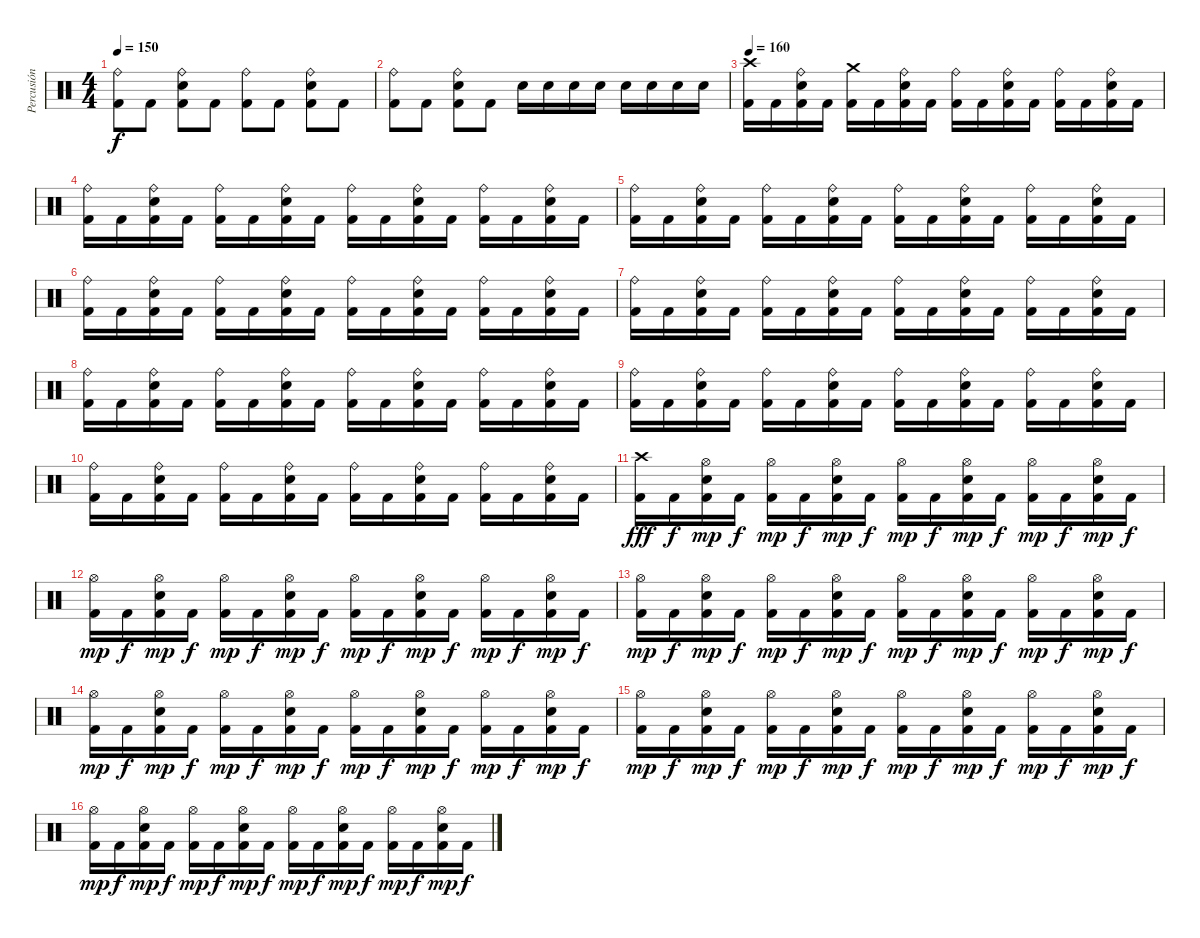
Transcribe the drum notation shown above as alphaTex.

\track ("Percusión" "Percusión") {instrument percussion}
\staff {score}
\articulation defaults
\ts (4 4)
\tempo 150
\clef neutral
\ks c
("Ride (bell)" "Kick (hit) 2").8{dy f} "Kick (hit) 2".8 ("Ride (bell)" "Snare (hit) 2" "Kick (hit) 2").8 "Kick (hit) 2".8 ("Ride (bell)" "Kick (hit) 2").8 "Kick (hit) 2".8 ("Ride (bell)" "Snare (hit) 2" "Kick (hit) 2").8 "Kick (hit) 2".8 |
("Ride (bell)" "Kick (hit) 2").8 "Kick (hit) 2".8 ("Ride (bell)" "Snare (hit) 2" "Kick (hit) 2").8 "Kick (hit) 2".8 "Snare (hit) 2".16 "Snare (hit) 2".16 "Snare (hit) 2".16 "Snare (hit) 2".16 "Snare (hit) 2".16 "Snare (hit) 2".16 "Snare (hit) 2".16 "Snare (hit) 2".16 |
\tempo 160
("Crash high (hit)" "Kick (hit) 2").16 "Kick (hit) 2".16 ("Ride (bell)" "Snare (hit) 2" "Kick (hit) 2").16 "Kick (hit) 2".16 ("Crash medium (hit)" "Kick (hit) 2").16 "Kick (hit) 2".16 ("Ride (bell)" "Snare (hit) 2" "Kick (hit) 2").16 "Kick (hit) 2".16 ("Ride (bell)" "Kick (hit) 2").16 "Kick (hit) 2".16 ("Ride (bell)" "Snare (hit) 2" "Kick (hit) 2").16 "Kick (hit) 2".16 ("Ride (bell)" "Kick (hit) 2").16 "Kick (hit) 2".16 ("Ride (bell)" "Snare (hit) 2" "Kick (hit) 2").16 "Kick (hit) 2".16 |
("Ride (bell)" "Kick (hit) 2").16 "Kick (hit) 2".16 ("Ride (bell)" "Snare (hit) 2" "Kick (hit) 2").16 "Kick (hit) 2".16 ("Ride (bell)" "Kick (hit) 2").16 "Kick (hit) 2".16 ("Ride (bell)" "Snare (hit) 2" "Kick (hit) 2").16 "Kick (hit) 2".16 ("Ride (bell)" "Kick (hit) 2").16 "Kick (hit) 2".16 ("Ride (bell)" "Snare (hit) 2" "Kick (hit) 2").16 "Kick (hit) 2".16 ("Ride (bell)" "Kick (hit) 2").16 "Kick (hit) 2".16 ("Ride (bell)" "Snare (hit) 2" "Kick (hit) 2").16 "Kick (hit) 2".16 |
("Ride (bell)" "Kick (hit) 2").16 "Kick (hit) 2".16 ("Ride (bell)" "Snare (hit) 2" "Kick (hit) 2").16 "Kick (hit) 2".16 ("Ride (bell)" "Kick (hit) 2").16 "Kick (hit) 2".16 ("Ride (bell)" "Snare (hit) 2" "Kick (hit) 2").16 "Kick (hit) 2".16 ("Ride (bell)" "Kick (hit) 2").16 "Kick (hit) 2".16 ("Ride (bell)" "Snare (hit) 2" "Kick (hit) 2").16 "Kick (hit) 2".16 ("Ride (bell)" "Kick (hit) 2").16 "Kick (hit) 2".16 ("Ride (bell)" "Snare (hit) 2" "Kick (hit) 2").16 "Kick (hit) 2".16 |
("Ride (bell)" "Kick (hit) 2").16 "Kick (hit) 2".16 ("Ride (bell)" "Snare (hit) 2" "Kick (hit) 2").16 "Kick (hit) 2".16 ("Ride (bell)" "Kick (hit) 2").16 "Kick (hit) 2".16 ("Ride (bell)" "Snare (hit) 2" "Kick (hit) 2").16 "Kick (hit) 2".16 ("Ride (bell)" "Kick (hit) 2").16 "Kick (hit) 2".16 ("Ride (bell)" "Snare (hit) 2" "Kick (hit) 2").16 "Kick (hit) 2".16 ("Ride (bell)" "Kick (hit) 2").16 "Kick (hit) 2".16 ("Ride (bell)" "Snare (hit) 2" "Kick (hit) 2").16 "Kick (hit) 2".16 |
("Ride (bell)" "Kick (hit) 2").16 "Kick (hit) 2".16 ("Ride (bell)" "Snare (hit) 2" "Kick (hit) 2").16 "Kick (hit) 2".16 ("Ride (bell)" "Kick (hit) 2").16 "Kick (hit) 2".16 ("Ride (bell)" "Snare (hit) 2" "Kick (hit) 2").16 "Kick (hit) 2".16 ("Ride (bell)" "Kick (hit) 2").16 "Kick (hit) 2".16 ("Ride (bell)" "Snare (hit) 2" "Kick (hit) 2").16 "Kick (hit) 2".16 ("Ride (bell)" "Kick (hit) 2").16 "Kick (hit) 2".16 ("Ride (bell)" "Snare (hit) 2" "Kick (hit) 2").16 "Kick (hit) 2".16 |
("Ride (bell)" "Kick (hit) 2").16 "Kick (hit) 2".16 ("Ride (bell)" "Snare (hit) 2" "Kick (hit) 2").16 "Kick (hit) 2".16 ("Ride (bell)" "Kick (hit) 2").16 "Kick (hit) 2".16 ("Ride (bell)" "Snare (hit) 2" "Kick (hit) 2").16 "Kick (hit) 2".16 ("Ride (bell)" "Kick (hit) 2").16 "Kick (hit) 2".16 ("Ride (bell)" "Snare (hit) 2" "Kick (hit) 2").16 "Kick (hit) 2".16 ("Ride (bell)" "Kick (hit) 2").16 "Kick (hit) 2".16 ("Ride (bell)" "Snare (hit) 2" "Kick (hit) 2").16 "Kick (hit) 2".16 |
("Ride (bell)" "Kick (hit) 2").16 "Kick (hit) 2".16 ("Ride (bell)" "Snare (hit) 2" "Kick (hit) 2").16 "Kick (hit) 2".16 ("Ride (bell)" "Kick (hit) 2").16 "Kick (hit) 2".16 ("Ride (bell)" "Snare (hit) 2" "Kick (hit) 2").16 "Kick (hit) 2".16 ("Ride (bell)" "Kick (hit) 2").16 "Kick (hit) 2".16 ("Ride (bell)" "Snare (hit) 2" "Kick (hit) 2").16 "Kick (hit) 2".16 ("Ride (bell)" "Kick (hit) 2").16 "Kick (hit) 2".16 ("Ride (bell)" "Snare (hit) 2" "Kick (hit) 2").16 "Kick (hit) 2".16 |
("Ride (bell)" "Kick (hit) 2").16 "Kick (hit) 2".16 ("Ride (bell)" "Snare (hit) 2" "Kick (hit) 2").16 "Kick (hit) 2".16 ("Ride (bell)" "Kick (hit) 2").16 "Kick (hit) 2".16 ("Ride (bell)" "Snare (hit) 2" "Kick (hit) 2").16 "Kick (hit) 2".16 ("Ride (bell)" "Kick (hit) 2").16 "Kick (hit) 2".16 ("Ride (bell)" "Snare (hit) 2" "Kick (hit) 2").16 "Kick (hit) 2".16 ("Ride (bell)" "Kick (hit) 2").16 "Kick (hit) 2".16 ("Ride (bell)" "Snare (hit) 2" "Kick (hit) 2").16 "Kick (hit) 2".16 |
("Crash high (hit)" "Kick (hit) 2").16{dy fff} "Kick (hit) 2".16{dy f} ("Hi-Hat (open)" "Snare (hit) 2" "Kick (hit) 2").16{dy mp} "Kick (hit) 2".16{dy f} ("Hi-Hat (open)" "Kick (hit) 2").16{dy mp} "Kick (hit) 2".16{dy f} ("Hi-Hat (open)" "Snare (hit) 2" "Kick (hit) 2").16{dy mp} "Kick (hit) 2".16{dy f} ("Hi-Hat (open)" "Kick (hit) 2").16{dy mp} "Kick (hit) 2".16{dy f} ("Hi-Hat (open)" "Snare (hit) 2" "Kick (hit) 2").16{dy mp} "Kick (hit) 2".16{dy f} ("Hi-Hat (open)" "Kick (hit) 2").16{dy mp} "Kick (hit) 2".16{dy f} ("Hi-Hat (open)" "Snare (hit) 2" "Kick (hit) 2").16{dy mp} "Kick (hit) 2".16{dy f} |
("Hi-Hat (open)" "Kick (hit) 2").16{dy mp} "Kick (hit) 2".16{dy f} ("Hi-Hat (open)" "Snare (hit) 2" "Kick (hit) 2").16{dy mp} "Kick (hit) 2".16{dy f} ("Hi-Hat (open)" "Kick (hit) 2").16{dy mp} "Kick (hit) 2".16{dy f} ("Hi-Hat (open)" "Snare (hit) 2" "Kick (hit) 2").16{dy mp} "Kick (hit) 2".16{dy f} ("Hi-Hat (open)" "Kick (hit) 2").16{dy mp} "Kick (hit) 2".16{dy f} ("Hi-Hat (open)" "Snare (hit) 2" "Kick (hit) 2").16{dy mp} "Kick (hit) 2".16{dy f} ("Hi-Hat (open)" "Kick (hit) 2").16{dy mp} "Kick (hit) 2".16{dy f} ("Hi-Hat (open)" "Snare (hit) 2" "Kick (hit) 2").16{dy mp} "Kick (hit) 2".16{dy f} |
("Hi-Hat (open)" "Kick (hit) 2").16{dy mp} "Kick (hit) 2".16{dy f} ("Hi-Hat (open)" "Snare (hit) 2" "Kick (hit) 2").16{dy mp} "Kick (hit) 2".16{dy f} ("Hi-Hat (open)" "Kick (hit) 2").16{dy mp} "Kick (hit) 2".16{dy f} ("Hi-Hat (open)" "Snare (hit) 2" "Kick (hit) 2").16{dy mp} "Kick (hit) 2".16{dy f} ("Hi-Hat (open)" "Kick (hit) 2").16{dy mp} "Kick (hit) 2".16{dy f} ("Hi-Hat (open)" "Snare (hit) 2" "Kick (hit) 2").16{dy mp} "Kick (hit) 2".16{dy f} ("Hi-Hat (open)" "Kick (hit) 2").16{dy mp} "Kick (hit) 2".16{dy f} ("Hi-Hat (open)" "Snare (hit) 2" "Kick (hit) 2").16{dy mp} "Kick (hit) 2".16{dy f} |
("Hi-Hat (open)" "Kick (hit) 2").16{dy mp} "Kick (hit) 2".16{dy f} ("Hi-Hat (open)" "Snare (hit) 2" "Kick (hit) 2").16{dy mp} "Kick (hit) 2".16{dy f} ("Hi-Hat (open)" "Kick (hit) 2").16{dy mp} "Kick (hit) 2".16{dy f} ("Hi-Hat (open)" "Snare (hit) 2" "Kick (hit) 2").16{dy mp} "Kick (hit) 2".16{dy f} ("Hi-Hat (open)" "Kick (hit) 2").16{dy mp} "Kick (hit) 2".16{dy f} ("Hi-Hat (open)" "Snare (hit) 2" "Kick (hit) 2").16{dy mp} "Kick (hit) 2".16{dy f} ("Hi-Hat (open)" "Kick (hit) 2").16{dy mp} "Kick (hit) 2".16{dy f} ("Hi-Hat (open)" "Snare (hit) 2" "Kick (hit) 2").16{dy mp} "Kick (hit) 2".16{dy f} |
("Hi-Hat (open)" "Kick (hit) 2").16{dy mp} "Kick (hit) 2".16{dy f} ("Hi-Hat (open)" "Snare (hit) 2" "Kick (hit) 2").16{dy mp} "Kick (hit) 2".16{dy f} ("Hi-Hat (open)" "Kick (hit) 2").16{dy mp} "Kick (hit) 2".16{dy f} ("Hi-Hat (open)" "Snare (hit) 2" "Kick (hit) 2").16{dy mp} "Kick (hit) 2".16{dy f} ("Hi-Hat (open)" "Kick (hit) 2").16{dy mp} "Kick (hit) 2".16{dy f} ("Hi-Hat (open)" "Snare (hit) 2" "Kick (hit) 2").16{dy mp} "Kick (hit) 2".16{dy f} ("Hi-Hat (open)" "Kick (hit) 2").16{dy mp} "Kick (hit) 2".16{dy f} ("Hi-Hat (open)" "Snare (hit) 2" "Kick (hit) 2").16{dy mp} "Kick (hit) 2".16{dy f} |
("Hi-Hat (open)" "Kick (hit) 2").16{dy mp} "Kick (hit) 2".16{dy f} ("Hi-Hat (open)" "Snare (hit) 2" "Kick (hit) 2").16{dy mp} "Kick (hit) 2".16{dy f} ("Hi-Hat (open)" "Kick (hit) 2").16{dy mp} "Kick (hit) 2".16{dy f} ("Hi-Hat (open)" "Snare (hit) 2" "Kick (hit) 2").16{dy mp} "Kick (hit) 2".16{dy f} ("Hi-Hat (open)" "Kick (hit) 2").16{dy mp} "Kick (hit) 2".16{dy f} ("Hi-Hat (open)" "Snare (hit) 2" "Kick (hit) 2").16{dy mp} "Kick (hit) 2".16{dy f} ("Hi-Hat (open)" "Kick (hit) 2").16{dy mp} "Kick (hit) 2".16{dy f} ("Hi-Hat (open)" "Snare (hit) 2" "Kick (hit) 2").16{dy mp} "Kick (hit) 2".16{dy f}
